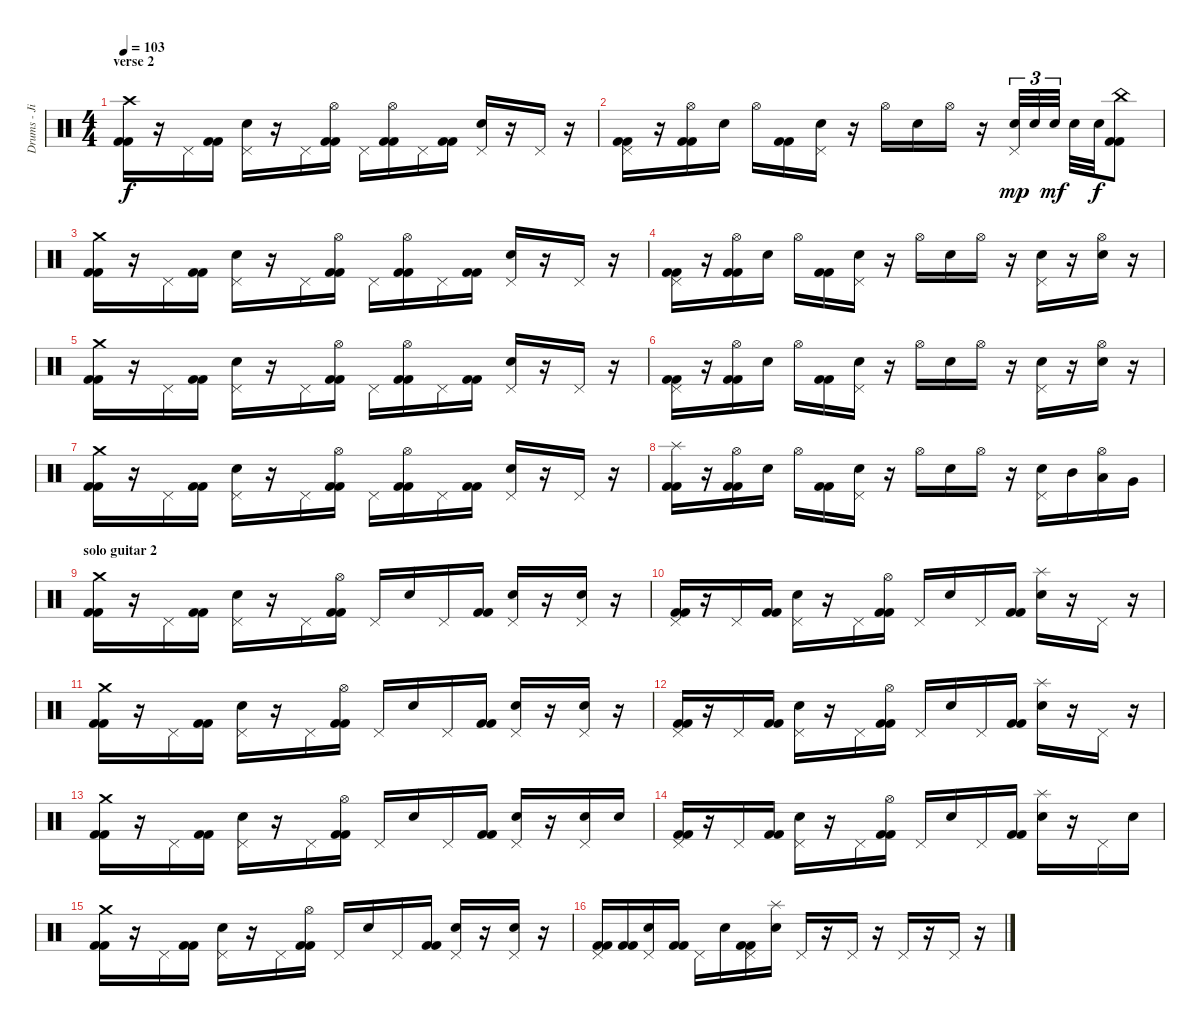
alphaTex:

\track ("Drums - Jimmy" "Drums - Ji") {instrument percussion}
\staff {score}
\articulation defaults
\ts (4 4)
\section ("" "verse 2")
\tempo 103
\clef neutral
\ks c
("Crash high (hit)" "Kick (hit) 2" "Kick (hit) 2").16{dy f} r.16 "Pedal Hi-Hat (hit)".16 ("Kick (hit) 2" "Kick (hit) 2").16 ("Pedal Hi-Hat (hit)" "Electric Snare (hit)").16 r.16 "Pedal Hi-Hat (hit)".16 ("Hi-Hat (open)" "Kick (hit) 2" "Kick (hit) 2").16 "Pedal Hi-Hat (hit)".16 ("Hi-Hat (open)" "Kick (hit) 2" "Kick (hit) 2").16 "Pedal Hi-Hat (hit)".16 ("Kick (hit) 2" "Kick (hit) 2").16 ("Pedal Hi-Hat (hit)" "Electric Snare (hit)").16 r.16 "Pedal Hi-Hat (hit)".16 r.16 |
("Pedal Hi-Hat (hit)" "Kick (hit) 2" "Kick (hit) 2").16 r.16 ("Hi-Hat (open)" "Kick (hit) 2" "Kick (hit) 2").16 "Electric Snare (hit)".16 "Hi-Hat (open)".16 ("Kick (hit) 2" "Kick (hit) 2").16 ("Pedal Hi-Hat (hit)" "Electric Snare (hit)").16 r.16 "Hi-Hat (open)".16 "Electric Snare (hit)".16 "Hi-Hat (open)".16 r.16 ("Pedal Hi-Hat (hit)" "Electric Snare (hit)").32{tu (3 2) dy mp} "Electric Snare (hit)".32{tu (3 2)} "Electric Snare (hit)".32{tu (3 2) dy mf} "Electric Snare (hit)".32 "Electric Snare (hit)".32{dy f} ("China (hit)" "Kick (hit) 2" "Kick (hit) 2").8 |
("Crash medium (hit)" "Kick (hit) 2" "Kick (hit) 2").16 r.16 "Pedal Hi-Hat (hit)".16 ("Kick (hit) 2" "Kick (hit) 2").16 ("Pedal Hi-Hat (hit)" "Electric Snare (hit)").16 r.16 "Pedal Hi-Hat (hit)".16 ("Hi-Hat (open)" "Kick (hit) 2" "Kick (hit) 2").16 "Pedal Hi-Hat (hit)".16 ("Hi-Hat (open)" "Kick (hit) 2" "Kick (hit) 2").16 "Pedal Hi-Hat (hit)".16 ("Kick (hit) 2" "Kick (hit) 2").16 ("Pedal Hi-Hat (hit)" "Electric Snare (hit)").16 r.16 "Pedal Hi-Hat (hit)".16 r.16 |
("Pedal Hi-Hat (hit)" "Kick (hit) 2" "Kick (hit) 2").16 r.16 ("Hi-Hat (open)" "Kick (hit) 2" "Kick (hit) 2").16 "Electric Snare (hit)".16 "Hi-Hat (open)".16 ("Kick (hit) 2" "Kick (hit) 2").16 ("Pedal Hi-Hat (hit)" "Electric Snare (hit)").16 r.16 "Hi-Hat (open)".16 "Electric Snare (hit)".16 "Hi-Hat (open)".16 r.16 ("Pedal Hi-Hat (hit)" "Electric Snare (hit)").16 r.16 ("Hi-Hat (open)" "Electric Snare (hit)").16 r.16 |
("Crash medium (hit)" "Kick (hit) 2" "Kick (hit) 2").16 r.16 "Pedal Hi-Hat (hit)".16 ("Kick (hit) 2" "Kick (hit) 2").16 ("Pedal Hi-Hat (hit)" "Electric Snare (hit)").16 r.16 "Pedal Hi-Hat (hit)".16 ("Hi-Hat (open)" "Kick (hit) 2" "Kick (hit) 2").16 "Pedal Hi-Hat (hit)".16 ("Hi-Hat (open)" "Kick (hit) 2" "Kick (hit) 2").16 "Pedal Hi-Hat (hit)".16 ("Kick (hit) 2" "Kick (hit) 2").16 ("Pedal Hi-Hat (hit)" "Electric Snare (hit)").16 r.16 "Pedal Hi-Hat (hit)".16 r.16 |
("Pedal Hi-Hat (hit)" "Kick (hit) 2" "Kick (hit) 2").16 r.16 ("Hi-Hat (open)" "Kick (hit) 2" "Kick (hit) 2").16 "Electric Snare (hit)".16 "Hi-Hat (open)".16 ("Kick (hit) 2" "Kick (hit) 2").16 ("Pedal Hi-Hat (hit)" "Electric Snare (hit)").16 r.16 "Hi-Hat (open)".16 "Electric Snare (hit)".16 "Hi-Hat (open)".16 r.16 ("Pedal Hi-Hat (hit)" "Electric Snare (hit)").16 r.16 ("Hi-Hat (open)" "Electric Snare (hit)").16 r.16 |
("Crash medium (hit)" "Kick (hit) 2" "Kick (hit) 2").16 r.16 "Pedal Hi-Hat (hit)".16 ("Kick (hit) 2" "Kick (hit) 2").16 ("Pedal Hi-Hat (hit)" "Electric Snare (hit)").16 r.16 "Pedal Hi-Hat (hit)".16 ("Hi-Hat (open)" "Kick (hit) 2" "Kick (hit) 2").16 "Pedal Hi-Hat (hit)".16 ("Hi-Hat (open)" "Kick (hit) 2" "Kick (hit) 2").16 "Pedal Hi-Hat (hit)".16 ("Kick (hit) 2" "Kick (hit) 2").16 ("Pedal Hi-Hat (hit)" "Electric Snare (hit)").16 r.16 "Pedal Hi-Hat (hit)".16 r.16 |
("Splash (hit)" "Kick (hit) 2" "Kick (hit) 2").16 r.16 ("Hi-Hat (open)" "Kick (hit) 2" "Kick (hit) 2").16 "Electric Snare (hit)".16 "Hi-Hat (open)".16 ("Kick (hit) 2" "Kick (hit) 2").16 ("Pedal Hi-Hat (hit)" "Electric Snare (hit)").16 r.16 "Hi-Hat (open)".16 "Electric Snare (hit)".16 "Hi-Hat (open)".16 r.16 ("Pedal Hi-Hat (hit)" "Electric Snare (hit)").16 "Mid Tom (hit)".16 ("Hi-Hat (open)" "Low Tom (hit)").16 "Very Low Tom (hit)".16 |
\section ("" "solo guitar 2")
("Crash medium (hit)" "Kick (hit) 2" "Kick (hit) 2").16 r.16 "Pedal Hi-Hat (hit)".16 ("Kick (hit) 2" "Kick (hit) 2").16 ("Pedal Hi-Hat (hit)" "Electric Snare (hit)").16 r.16 "Pedal Hi-Hat (hit)".16 ("Hi-Hat (open)" "Kick (hit) 2" "Kick (hit) 2").16 "Pedal Hi-Hat (hit)".16 "Electric Snare (hit)".16 "Pedal Hi-Hat (hit)".16 ("Kick (hit) 2" "Kick (hit) 2").16 ("Pedal Hi-Hat (hit)" "Electric Snare (hit)").16 r.16 ("Pedal Hi-Hat (hit)" "Electric Snare (hit)").16 r.16 |
("Pedal Hi-Hat (hit)" "Kick (hit) 2" "Kick (hit) 2").16 r.16 "Pedal Hi-Hat (hit)".16 ("Kick (hit) 2" "Kick (hit) 2").16 ("Pedal Hi-Hat (hit)" "Electric Snare (hit)").16 r.16 "Pedal Hi-Hat (hit)".16 ("Hi-Hat (open)" "Kick (hit) 2" "Kick (hit) 2").16 "Pedal Hi-Hat (hit)".16 "Electric Snare (hit)".16 "Pedal Hi-Hat (hit)".16 ("Kick (hit) 2" "Kick (hit) 2").16 ("Splash (hit)" "Electric Snare (hit)").16 r.16 "Pedal Hi-Hat (hit)".16 r.16 |
("Crash medium (hit)" "Kick (hit) 2" "Kick (hit) 2").16 r.16 "Pedal Hi-Hat (hit)".16 ("Kick (hit) 2" "Kick (hit) 2").16 ("Pedal Hi-Hat (hit)" "Electric Snare (hit)").16 r.16 "Pedal Hi-Hat (hit)".16 ("Hi-Hat (open)" "Kick (hit) 2" "Kick (hit) 2").16 "Pedal Hi-Hat (hit)".16 "Electric Snare (hit)".16 "Pedal Hi-Hat (hit)".16 ("Kick (hit) 2" "Kick (hit) 2").16 ("Pedal Hi-Hat (hit)" "Electric Snare (hit)").16 r.16 ("Pedal Hi-Hat (hit)" "Electric Snare (hit)").16 r.16 |
("Pedal Hi-Hat (hit)" "Kick (hit) 2" "Kick (hit) 2").16 r.16 "Pedal Hi-Hat (hit)".16 ("Kick (hit) 2" "Kick (hit) 2").16 ("Pedal Hi-Hat (hit)" "Electric Snare (hit)").16 r.16 "Pedal Hi-Hat (hit)".16 ("Hi-Hat (open)" "Kick (hit) 2" "Kick (hit) 2").16 "Pedal Hi-Hat (hit)".16 "Electric Snare (hit)".16 "Pedal Hi-Hat (hit)".16 ("Kick (hit) 2" "Kick (hit) 2").16 ("Splash (hit)" "Electric Snare (hit)").16 r.16 "Pedal Hi-Hat (hit)".16 r.16 |
("Crash medium (hit)" "Kick (hit) 2" "Kick (hit) 2").16 r.16 "Pedal Hi-Hat (hit)".16 ("Kick (hit) 2" "Kick (hit) 2").16 ("Pedal Hi-Hat (hit)" "Electric Snare (hit)").16 r.16 "Pedal Hi-Hat (hit)".16 ("Hi-Hat (open)" "Kick (hit) 2" "Kick (hit) 2").16 "Pedal Hi-Hat (hit)".16 "Electric Snare (hit)".16 "Pedal Hi-Hat (hit)".16 ("Kick (hit) 2" "Kick (hit) 2").16 ("Pedal Hi-Hat (hit)" "Electric Snare (hit)").16 r.16 ("Pedal Hi-Hat (hit)" "Electric Snare (hit)").16 "Electric Snare (hit)".16 |
("Pedal Hi-Hat (hit)" "Kick (hit) 2" "Kick (hit) 2").16 r.16 "Pedal Hi-Hat (hit)".16 ("Kick (hit) 2" "Kick (hit) 2").16 ("Pedal Hi-Hat (hit)" "Electric Snare (hit)").16 r.16 "Pedal Hi-Hat (hit)".16 ("Hi-Hat (open)" "Kick (hit) 2" "Kick (hit) 2").16 "Pedal Hi-Hat (hit)".16 "Electric Snare (hit)".16 "Pedal Hi-Hat (hit)".16 ("Kick (hit) 2" "Kick (hit) 2").16 ("Splash (hit)" "Electric Snare (hit)").16 r.16 "Pedal Hi-Hat (hit)".16 "Electric Snare (hit)".16 |
("Crash medium (hit)" "Kick (hit) 2" "Kick (hit) 2").16 r.16 "Pedal Hi-Hat (hit)".16 ("Kick (hit) 2" "Kick (hit) 2").16 ("Pedal Hi-Hat (hit)" "Electric Snare (hit)").16 r.16 "Pedal Hi-Hat (hit)".16 ("Hi-Hat (open)" "Kick (hit) 2" "Kick (hit) 2").16 "Pedal Hi-Hat (hit)".16 "Electric Snare (hit)".16 "Pedal Hi-Hat (hit)".16 ("Kick (hit) 2" "Kick (hit) 2").16 ("Pedal Hi-Hat (hit)" "Electric Snare (hit)").16 r.16 ("Pedal Hi-Hat (hit)" "Electric Snare (hit)").16 r.16 |
("Pedal Hi-Hat (hit)" "Kick (hit) 2" "Kick (hit) 2").16 ("Kick (hit) 2" "Kick (hit) 2").16 ("Pedal Hi-Hat (hit)" "Electric Snare (hit)").16 ("Kick (hit) 2" "Kick (hit) 2").16 "Pedal Hi-Hat (hit)".16 "Electric Snare (hit)".16 ("Pedal Hi-Hat (hit)" "Kick (hit) 2" "Kick (hit) 2").16 ("Splash (hit)" "Electric Snare (hit)").16 "Pedal Hi-Hat (hit)".16 r.16 "Pedal Hi-Hat (hit)".16 r.16 "Pedal Hi-Hat (hit)".16 r.16 "Pedal Hi-Hat (hit)".16 r.16
